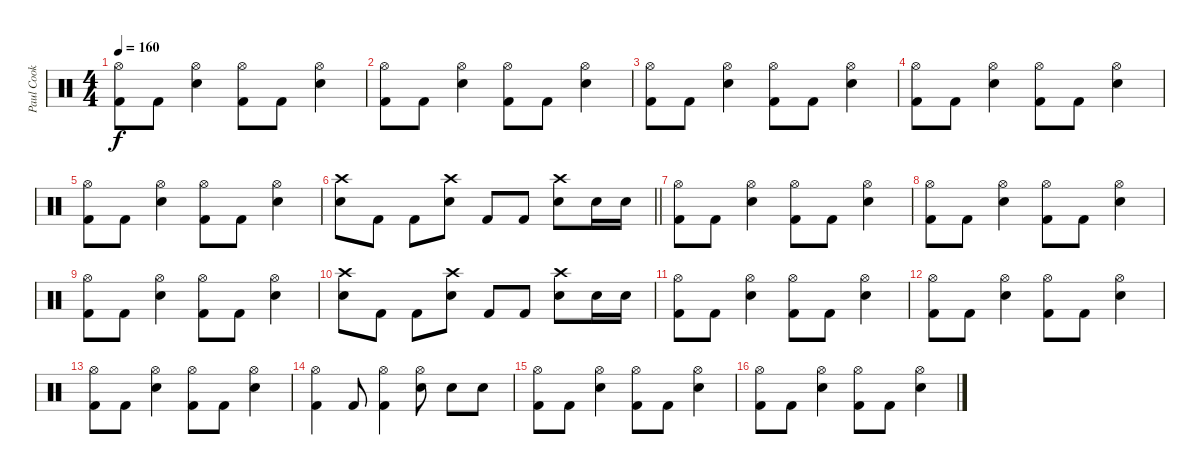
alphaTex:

\track ("Paul Cook" "Paul Cook") {instrument percussion}
\staff {score}
\articulation defaults
\ts (4 4)
\tempo 160
\clef neutral
\ks c
("Hi-Hat (open)" "Kick (hit) 2").8{dy f} "Kick (hit) 2".8 ("Hi-Hat (open)" "Electric Snare (hit)").4 ("Hi-Hat (open)" "Kick (hit) 2").8 "Kick (hit) 2".8 ("Hi-Hat (open)" "Electric Snare (hit)").4 |
("Hi-Hat (open)" "Kick (hit) 2").8 "Kick (hit) 2".8 ("Hi-Hat (open)" "Electric Snare (hit)").4 ("Hi-Hat (open)" "Kick (hit) 2").8 "Kick (hit) 2".8 ("Hi-Hat (open)" "Electric Snare (hit)").4 |
("Hi-Hat (open)" "Kick (hit) 2").8 "Kick (hit) 2".8 ("Hi-Hat (open)" "Electric Snare (hit)").4 ("Hi-Hat (open)" "Kick (hit) 2").8 "Kick (hit) 2".8 ("Hi-Hat (open)" "Electric Snare (hit)").4 |
("Hi-Hat (open)" "Kick (hit) 2").8 "Kick (hit) 2".8 ("Hi-Hat (open)" "Electric Snare (hit)").4 ("Hi-Hat (open)" "Kick (hit) 2").8 "Kick (hit) 2".8 ("Hi-Hat (open)" "Electric Snare (hit)").4 |
("Hi-Hat (open)" "Kick (hit) 2").8 "Kick (hit) 2".8 ("Hi-Hat (open)" "Electric Snare (hit)").4 ("Hi-Hat (open)" "Kick (hit) 2").8 "Kick (hit) 2".8 ("Hi-Hat (open)" "Electric Snare (hit)").4 |
\barLineRight lightlight
("Crash high (hit)" "Electric Snare (hit)").8 "Kick (hit) 2".8 "Kick (hit) 2".8 ("Crash high (hit)" "Electric Snare (hit)").8 "Kick (hit) 2".8 "Kick (hit) 2".8 ("Crash high (hit)" "Electric Snare (hit)").8 "Electric Snare (hit)".16 "Electric Snare (hit)".16 |
("Hi-Hat (open)" "Kick (hit) 2").8 "Kick (hit) 2".8 ("Hi-Hat (open)" "Electric Snare (hit)").4 ("Hi-Hat (open)" "Kick (hit) 2").8 "Kick (hit) 2".8 ("Hi-Hat (open)" "Electric Snare (hit)").4 |
("Hi-Hat (open)" "Kick (hit) 2").8 "Kick (hit) 2".8 ("Hi-Hat (open)" "Electric Snare (hit)").4 ("Hi-Hat (open)" "Kick (hit) 2").8 "Kick (hit) 2".8 ("Hi-Hat (open)" "Electric Snare (hit)").4 |
("Hi-Hat (open)" "Kick (hit) 2").8 "Kick (hit) 2".8 ("Hi-Hat (open)" "Electric Snare (hit)").4 ("Hi-Hat (open)" "Kick (hit) 2").8 "Kick (hit) 2".8 ("Hi-Hat (open)" "Electric Snare (hit)").4 |
("Crash high (hit)" "Electric Snare (hit)").8 "Kick (hit) 2".8 "Kick (hit) 2".8 ("Crash high (hit)" "Electric Snare (hit)").8 "Kick (hit) 2".8 "Kick (hit) 2".8 ("Crash high (hit)" "Electric Snare (hit)").8 "Electric Snare (hit)".16 "Electric Snare (hit)".16 |
("Hi-Hat (open)" "Kick (hit) 2").8 "Kick (hit) 2".8 ("Hi-Hat (open)" "Electric Snare (hit)").4 ("Hi-Hat (open)" "Kick (hit) 2").8 "Kick (hit) 2".8 ("Hi-Hat (open)" "Electric Snare (hit)").4 |
("Hi-Hat (open)" "Kick (hit) 2").8 "Kick (hit) 2".8 ("Hi-Hat (open)" "Electric Snare (hit)").4 ("Hi-Hat (open)" "Kick (hit) 2").8 "Kick (hit) 2".8 ("Hi-Hat (open)" "Electric Snare (hit)").4 |
("Hi-Hat (open)" "Kick (hit) 2").8 "Kick (hit) 2".8 ("Hi-Hat (open)" "Electric Snare (hit)").4 ("Hi-Hat (open)" "Kick (hit) 2").8 "Kick (hit) 2".8 ("Hi-Hat (open)" "Electric Snare (hit)").4 |
("Hi-Hat (open)" "Kick (hit) 2").4 "Kick (hit) 2".8 ("Hi-Hat (open)" "Kick (hit) 2").4 ("Hi-Hat (open)" "Electric Snare (hit)").8 "Electric Snare (hit)".8 "Electric Snare (hit)".8 |
("Hi-Hat (open)" "Kick (hit) 2").8 "Kick (hit) 2".8 ("Hi-Hat (open)" "Electric Snare (hit)").4 ("Hi-Hat (open)" "Kick (hit) 2").8 "Kick (hit) 2".8 ("Hi-Hat (open)" "Electric Snare (hit)").4 |
("Hi-Hat (open)" "Kick (hit) 2").8 "Kick (hit) 2".8 ("Hi-Hat (open)" "Electric Snare (hit)").4 ("Hi-Hat (open)" "Kick (hit) 2").8 "Kick (hit) 2".8 ("Hi-Hat (open)" "Electric Snare (hit)").4
